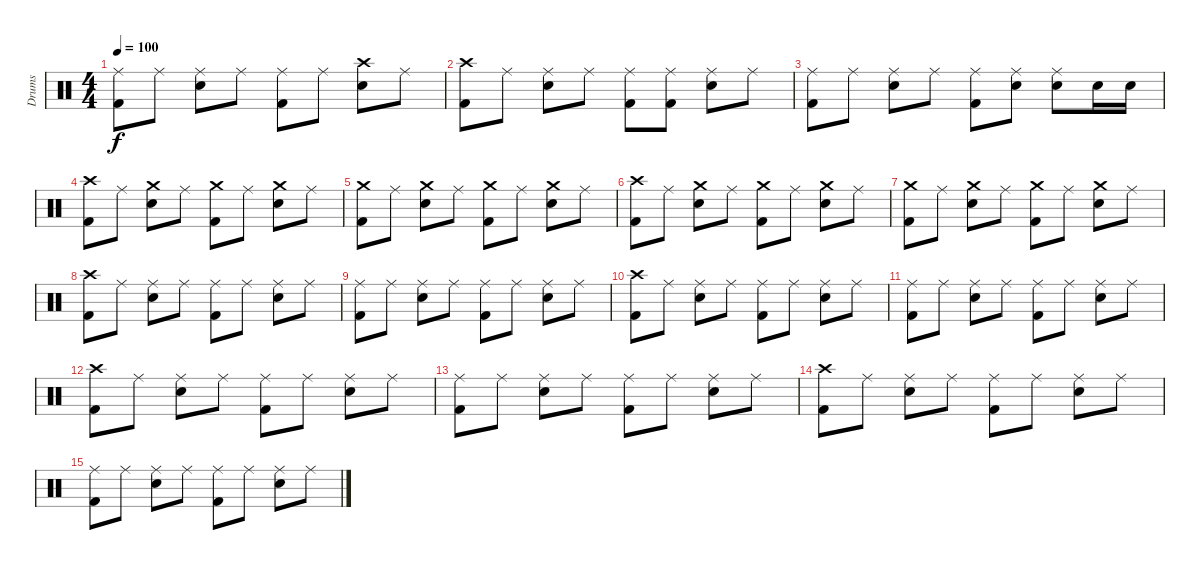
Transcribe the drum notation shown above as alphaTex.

\track ("Drums" "Drums") {instrument percussion}
\staff {score}
\articulation defaults
\ts (4 4)
\tempo 100
\clef neutral
\ks c
("Ride (middle)" "Kick (hit) 2").8{dy f} "Ride (middle)".8 ("Ride (middle)" "Snare (hit) 2").8 "Ride (middle)".8 ("Ride (middle)" "Kick (hit) 2").8 "Ride (middle)".8 ("Crash high (hit)" "Snare (hit) 2").8 "Ride (middle)".8 |
("Crash high (hit)" "Kick (hit) 2").8 "Ride (middle)".8 ("Ride (middle)" "Snare (hit) 2").8 "Ride (middle)".8 ("Ride (middle)" "Kick (hit) 2").8 ("Ride (middle)" "Kick (hit) 2").8 ("Ride (middle)" "Snare (hit) 2").8 "Ride (middle)".8 |
("Ride (middle)" "Kick (hit) 2").8 "Ride (middle)".8 ("Ride (middle)" "Snare (hit) 2").8 "Ride (middle)".8 ("Ride (middle)" "Kick (hit) 2").8 ("Ride (middle)" "Snare (hit) 2").8 ("Ride (middle)" "Snare (hit) 2").8 "Snare (hit) 2".16 "Snare (hit) 2".16 |
("Crash high (hit)" "Kick (hit) 2").8 "Ride (middle)".8 ("Crash medium (hit)" "Snare (hit) 2").8 "Ride (middle)".8 ("Crash medium (hit)" "Kick (hit) 2").8 "Ride (middle)".8 ("Crash medium (hit)" "Snare (hit) 2").8 "Ride (middle)".8 |
("Crash medium (hit)" "Kick (hit) 2").8 "Ride (middle)".8 ("Crash medium (hit)" "Snare (hit) 2").8 "Ride (middle)".8 ("Crash medium (hit)" "Kick (hit) 2").8 "Ride (middle)".8 ("Crash medium (hit)" "Snare (hit) 2").8 "Ride (middle)".8 |
("Crash high (hit)" "Kick (hit) 2").8 "Ride (middle)".8 ("Crash medium (hit)" "Snare (hit) 2").8 "Ride (middle)".8 ("Crash medium (hit)" "Kick (hit) 2").8 "Ride (middle)".8 ("Crash medium (hit)" "Snare (hit) 2").8 "Ride (middle)".8 |
("Crash medium (hit)" "Kick (hit) 2").8 "Ride (middle)".8 ("Crash medium (hit)" "Snare (hit) 2").8 "Ride (middle)".8 ("Crash medium (hit)" "Kick (hit) 2").8 "Ride (middle)".8 ("Crash medium (hit)" "Snare (hit) 2").8 "Ride (middle)".8 |
("Crash high (hit)" "Kick (hit) 2").8 "Ride (middle)".8 ("Ride (middle)" "Snare (hit) 2").8 "Ride (middle)".8 ("Ride (middle)" "Kick (hit) 2").8 "Ride (middle)".8 ("Ride (middle)" "Snare (hit) 2").8 "Ride (middle)".8 |
("Ride (middle)" "Kick (hit) 2").8 "Ride (middle)".8 ("Ride (middle)" "Snare (hit) 2").8 "Ride (middle)".8 ("Ride (middle)" "Kick (hit) 2").8 "Ride (middle)".8 ("Ride (middle)" "Snare (hit) 2").8 "Ride (middle)".8 |
("Crash high (hit)" "Kick (hit) 2").8 "Ride (middle)".8 ("Ride (middle)" "Snare (hit) 2").8 "Ride (middle)".8 ("Ride (middle)" "Kick (hit) 2").8 "Ride (middle)".8 ("Ride (middle)" "Snare (hit) 2").8 "Ride (middle)".8 |
("Ride (middle)" "Kick (hit) 2").8 "Ride (middle)".8 ("Ride (middle)" "Snare (hit) 2").8 "Ride (middle)".8 ("Ride (middle)" "Kick (hit) 2").8 "Ride (middle)".8 ("Ride (middle)" "Snare (hit) 2").8 "Ride (middle)".8 |
("Crash high (hit)" "Kick (hit) 2").8 "Ride (middle)".8 ("Ride (middle)" "Snare (hit) 2").8 "Ride (middle)".8 ("Ride (middle)" "Kick (hit) 2").8 "Ride (middle)".8 ("Ride (middle)" "Snare (hit) 2").8 "Ride (middle)".8 |
("Ride (middle)" "Kick (hit) 2").8 "Ride (middle)".8 ("Ride (middle)" "Snare (hit) 2").8 "Ride (middle)".8 ("Ride (middle)" "Kick (hit) 2").8 "Ride (middle)".8 ("Ride (middle)" "Snare (hit) 2").8 "Ride (middle)".8 |
("Crash high (hit)" "Kick (hit) 2").8{volume 0} "Ride (middle)".8 ("Ride (middle)" "Snare (hit) 2").8 "Ride (middle)".8 ("Ride (middle)" "Kick (hit) 2").8 "Ride (middle)".8 ("Ride (middle)" "Snare (hit) 2").8 "Ride (middle)".8 |
("Ride (middle)" "Kick (hit) 2").8 "Ride (middle)".8 ("Ride (middle)" "Snare (hit) 2").8 "Ride (middle)".8 ("Ride (middle)" "Kick (hit) 2").8 "Ride (middle)".8 ("Ride (middle)" "Snare (hit) 2").8 "Ride (middle)".8
